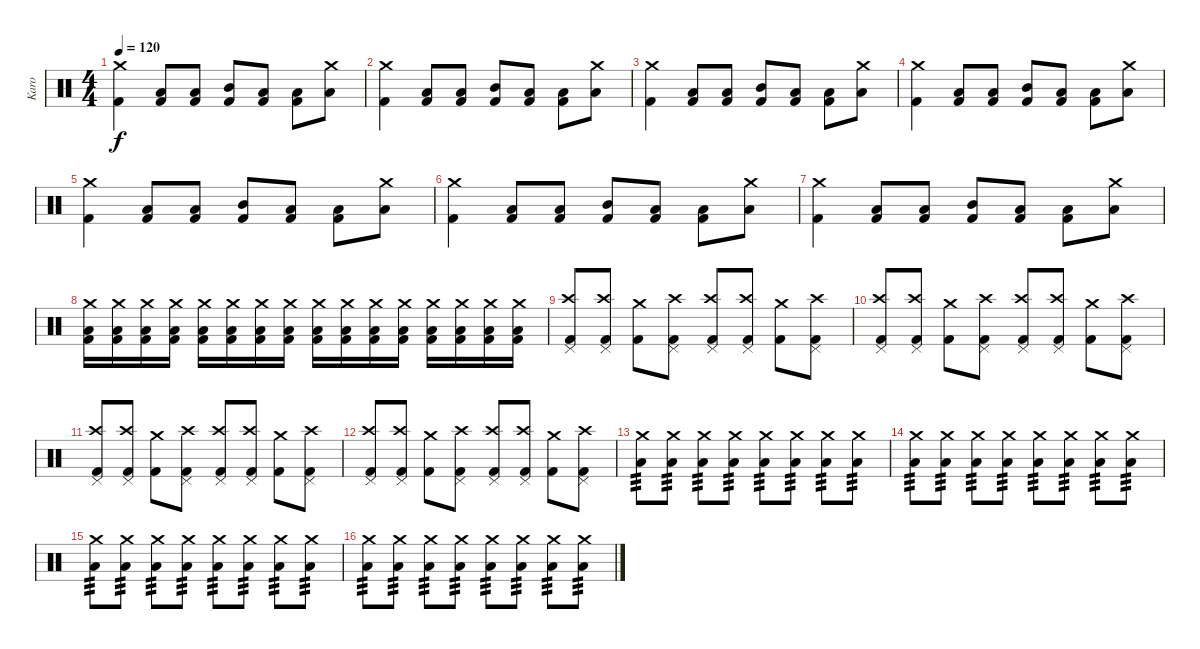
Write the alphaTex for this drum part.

\track ("Karo" "Karo") {instrument percussion}
\staff {score}
\articulation defaults
\ts (4 4)
\tempo 120
\clef neutral
\ks c
("Crash medium (hit)" "Kick (hit) 2").4{dy f} ("Kick (hit) 2" "Low Tom (hit)").8 ("Kick (hit) 2" "Low Tom (hit)").8 ("Kick (hit) 2" "Mid Tom (hit)").8 ("Kick (hit) 2" "Low Tom (hit)").8 ("Kick (hit) 2" "Low Tom (hit)").8 ("Crash medium (hit)" "Low Tom (hit)").8 |
("Crash medium (hit)" "Kick (hit) 2").4 ("Kick (hit) 2" "Low Tom (hit)").8 ("Kick (hit) 2" "Low Tom (hit)").8 ("Kick (hit) 2" "Mid Tom (hit)").8 ("Kick (hit) 2" "Low Tom (hit)").8 ("Kick (hit) 2" "Low Tom (hit)").8 ("Crash medium (hit)" "Low Tom (hit)").8 |
("Crash medium (hit)" "Kick (hit) 2").4 ("Kick (hit) 2" "Low Tom (hit)").8 ("Kick (hit) 2" "Low Tom (hit)").8 ("Kick (hit) 2" "Mid Tom (hit)").8 ("Kick (hit) 2" "Low Tom (hit)").8 ("Kick (hit) 2" "Low Tom (hit)").8 ("Crash medium (hit)" "Low Tom (hit)").8 |
("Crash medium (hit)" "Kick (hit) 2").4 ("Kick (hit) 2" "Low Tom (hit)").8 ("Kick (hit) 2" "Low Tom (hit)").8 ("Kick (hit) 2" "Mid Tom (hit)").8 ("Kick (hit) 2" "Low Tom (hit)").8 ("Kick (hit) 2" "Low Tom (hit)").8 ("Crash medium (hit)" "Low Tom (hit)").8 |
("Crash medium (hit)" "Kick (hit) 2").4 ("Kick (hit) 2" "Low Tom (hit)").8 ("Kick (hit) 2" "Low Tom (hit)").8 ("Kick (hit) 2" "Mid Tom (hit)").8 ("Kick (hit) 2" "Low Tom (hit)").8 ("Kick (hit) 2" "Low Tom (hit)").8 ("Crash medium (hit)" "Low Tom (hit)").8 |
("Crash medium (hit)" "Kick (hit) 2").4 ("Kick (hit) 2" "Low Tom (hit)").8 ("Kick (hit) 2" "Low Tom (hit)").8 ("Kick (hit) 2" "Mid Tom (hit)").8 ("Kick (hit) 2" "Low Tom (hit)").8 ("Kick (hit) 2" "Low Tom (hit)").8 ("Crash medium (hit)" "Low Tom (hit)").8 |
("Crash medium (hit)" "Kick (hit) 2").4 ("Kick (hit) 2" "Low Tom (hit)").8 ("Kick (hit) 2" "Low Tom (hit)").8 ("Kick (hit) 2" "Mid Tom (hit)").8 ("Kick (hit) 2" "Low Tom (hit)").8 ("Kick (hit) 2" "Low Tom (hit)").8 ("Crash medium (hit)" "Low Tom (hit)").8 |
("Crash medium (hit)" "Kick (hit) 2" "Low Tom (hit)").16 ("Crash medium (hit)" "Kick (hit) 2" "Low Tom (hit)").16 ("Crash medium (hit)" "Kick (hit) 2" "Low Tom (hit)").16 ("Crash medium (hit)" "Kick (hit) 2" "Low Tom (hit)").16 ("Crash medium (hit)" "Kick (hit) 2" "Low Tom (hit)").16 ("Crash medium (hit)" "Kick (hit) 2" "Low Tom (hit)").16 ("Crash medium (hit)" "Kick (hit) 2" "Low Tom (hit)").16 ("Crash medium (hit)" "Kick (hit) 2" "Low Tom (hit)").16 ("Crash medium (hit)" "Kick (hit) 2" "Low Tom (hit)").16 ("Crash medium (hit)" "Kick (hit) 2" "Low Tom (hit)").16 ("Crash medium (hit)" "Kick (hit) 2" "Low Tom (hit)").16 ("Crash medium (hit)" "Kick (hit) 2" "Low Tom (hit)").16 ("Crash medium (hit)" "Kick (hit) 2" "Low Tom (hit)").16 ("Crash medium (hit)" "Kick (hit) 2" "Low Tom (hit)").16 ("Crash medium (hit)" "Kick (hit) 2" "Low Tom (hit)").16 ("Crash medium (hit)" "Kick (hit) 2" "Low Tom (hit)").16 |
("Crash high (hit)" "Pedal Hi-Hat (hit)" "Kick (hit) 2").8 ("Crash high (hit)" "Pedal Hi-Hat (hit)" "Kick (hit) 2").8 ("Crash medium (hit)" "Kick (hit) 2").8 ("Crash high (hit)" "Pedal Hi-Hat (hit)" "Kick (hit) 2").8 ("Crash high (hit)" "Pedal Hi-Hat (hit)" "Kick (hit) 2").8 ("Crash high (hit)" "Pedal Hi-Hat (hit)" "Kick (hit) 2").8 ("Crash medium (hit)" "Kick (hit) 2").8 ("Crash high (hit)" "Pedal Hi-Hat (hit)" "Kick (hit) 2").8 |
("Crash high (hit)" "Pedal Hi-Hat (hit)" "Kick (hit) 2").8 ("Crash high (hit)" "Pedal Hi-Hat (hit)" "Kick (hit) 2").8 ("Crash medium (hit)" "Kick (hit) 2").8 ("Crash high (hit)" "Pedal Hi-Hat (hit)" "Kick (hit) 2").8 ("Crash high (hit)" "Pedal Hi-Hat (hit)" "Kick (hit) 2").8 ("Crash high (hit)" "Pedal Hi-Hat (hit)" "Kick (hit) 2").8 ("Crash medium (hit)" "Kick (hit) 2").8 ("Crash high (hit)" "Pedal Hi-Hat (hit)" "Kick (hit) 2").8 |
("Crash high (hit)" "Pedal Hi-Hat (hit)" "Kick (hit) 2").8 ("Crash high (hit)" "Pedal Hi-Hat (hit)" "Kick (hit) 2").8 ("Crash medium (hit)" "Kick (hit) 2").8 ("Crash high (hit)" "Pedal Hi-Hat (hit)" "Kick (hit) 2").8 ("Crash high (hit)" "Pedal Hi-Hat (hit)" "Kick (hit) 2").8 ("Crash high (hit)" "Pedal Hi-Hat (hit)" "Kick (hit) 2").8 ("Crash medium (hit)" "Kick (hit) 2").8 ("Crash high (hit)" "Pedal Hi-Hat (hit)" "Kick (hit) 2").8 |
("Crash high (hit)" "Pedal Hi-Hat (hit)" "Kick (hit) 2").8 ("Crash high (hit)" "Pedal Hi-Hat (hit)" "Kick (hit) 2").8 ("Crash medium (hit)" "Kick (hit) 2").8 ("Crash high (hit)" "Pedal Hi-Hat (hit)" "Kick (hit) 2").8 ("Crash high (hit)" "Pedal Hi-Hat (hit)" "Kick (hit) 2").8 ("Crash high (hit)" "Pedal Hi-Hat (hit)" "Kick (hit) 2").8 ("Crash medium (hit)" "Kick (hit) 2").8 ("Crash high (hit)" "Pedal Hi-Hat (hit)" "Kick (hit) 2").8 |
("Low Tom (hit)" "Crash medium (hit)").8{tp 3} ("Low Tom (hit)" "Crash medium (hit)").8{tp 3} ("Low Tom (hit)" "Crash medium (hit)").8{tp 3} ("Low Tom (hit)" "Crash medium (hit)").8{tp 3} ("Low Tom (hit)" "Crash medium (hit)").8{tp 3} ("Low Tom (hit)" "Crash medium (hit)").8{tp 3} ("Low Tom (hit)" "Crash medium (hit)").8{tp 3} ("Low Tom (hit)" "Crash medium (hit)").8{tp 3} |
("Low Tom (hit)" "Crash medium (hit)").8{tp 3} ("Low Tom (hit)" "Crash medium (hit)").8{tp 3} ("Low Tom (hit)" "Crash medium (hit)").8{tp 3} ("Low Tom (hit)" "Crash medium (hit)").8{tp 3} ("Low Tom (hit)" "Crash medium (hit)").8{tp 3} ("Low Tom (hit)" "Crash medium (hit)").8{tp 3} ("Low Tom (hit)" "Crash medium (hit)").8{tp 3} ("Low Tom (hit)" "Crash medium (hit)").8{tp 3} |
("Low Tom (hit)" "Crash medium (hit)").8{tp 3} ("Low Tom (hit)" "Crash medium (hit)").8{tp 3} ("Low Tom (hit)" "Crash medium (hit)").8{tp 3} ("Low Tom (hit)" "Crash medium (hit)").8{tp 3} ("Low Tom (hit)" "Crash medium (hit)").8{tp 3} ("Low Tom (hit)" "Crash medium (hit)").8{tp 3} ("Low Tom (hit)" "Crash medium (hit)").8{tp 3} ("Low Tom (hit)" "Crash medium (hit)").8{tp 3} |
("Low Tom (hit)" "Crash medium (hit)").8{tp 3} ("Low Tom (hit)" "Crash medium (hit)").8{tp 3} ("Low Tom (hit)" "Crash medium (hit)").8{tp 3} ("Low Tom (hit)" "Crash medium (hit)").8{tp 3} ("Low Tom (hit)" "Crash medium (hit)").8{tp 3} ("Low Tom (hit)" "Crash medium (hit)").8{tp 3} ("Low Tom (hit)" "Crash medium (hit)").8{tp 3} ("Low Tom (hit)" "Crash medium (hit)").8{tp 3}
